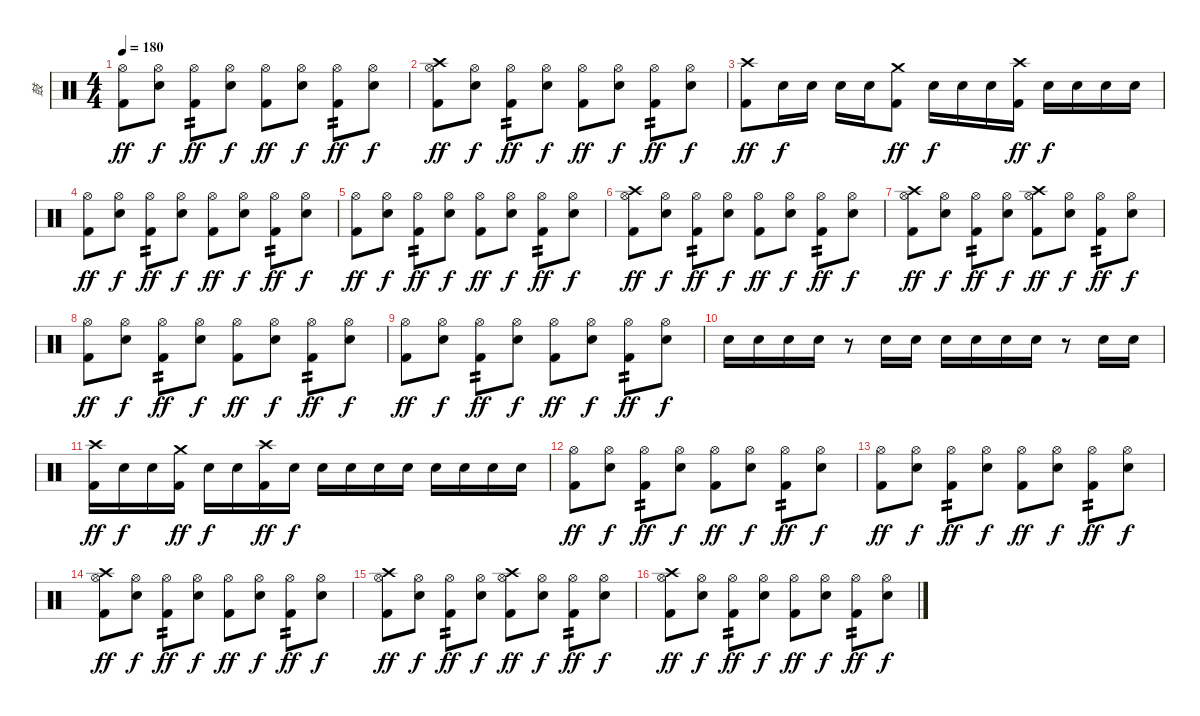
\track ("鼓" "鼓") {instrument percussion}
\staff {score}
\articulation defaults
\ts (4 4)
\tempo 180
\clef neutral
\ks c
("Hi-Hat (open)" "Kick (hit) 2").8{dy ff} ("Hi-Hat (open)" "Snare (hit) 2").8{dy f} ("Hi-Hat (open)" "Kick (hit) 2").8{tp 2 dy ff} ("Hi-Hat (open)" "Snare (hit) 2").8{dy f} ("Hi-Hat (open)" "Kick (hit) 2").8{dy ff} ("Hi-Hat (open)" "Snare (hit) 2").8{dy f} ("Hi-Hat (open)" "Kick (hit) 2").8{tp 2 dy ff} ("Hi-Hat (open)" "Snare (hit) 2").8{dy f} |
("Crash high (hit)" "Hi-Hat (open)" "Kick (hit) 2").8{dy ff} ("Hi-Hat (open)" "Snare (hit) 2").8{dy f} ("Hi-Hat (open)" "Kick (hit) 2").8{tp 2 dy ff} ("Hi-Hat (open)" "Snare (hit) 2").8{dy f} ("Hi-Hat (open)" "Kick (hit) 2").8{dy ff} ("Hi-Hat (open)" "Snare (hit) 2").8{dy f} ("Hi-Hat (open)" "Kick (hit) 2").8{tp 2 dy ff} ("Hi-Hat (open)" "Snare (hit) 2").8{dy f} |
("Crash high (hit)" "Kick (hit) 2").8{dy ff} "Snare (hit) 2".16{dy f} "Snare (hit) 2".16 "Snare (hit) 2".16 "Snare (hit) 2".16 ("Crash medium (hit)" "Kick (hit) 2").8{dy ff} "Snare (hit) 2".16{dy f} "Snare (hit) 2".16 "Snare (hit) 2".16 ("Crash high (hit)" "Kick (hit) 2").16{dy ff} "Snare (hit) 2".16{dy f} "Snare (hit) 2".16 "Snare (hit) 2".16 "Snare (hit) 2".16 |
("Hi-Hat (open)" "Kick (hit) 2").8{dy ff} ("Hi-Hat (open)" "Snare (hit) 2").8{dy f} ("Hi-Hat (open)" "Kick (hit) 2").8{tp 2 dy ff} ("Hi-Hat (open)" "Snare (hit) 2").8{dy f} ("Hi-Hat (open)" "Kick (hit) 2").8{dy ff} ("Hi-Hat (open)" "Snare (hit) 2").8{dy f} ("Hi-Hat (open)" "Kick (hit) 2").8{tp 2 dy ff} ("Hi-Hat (open)" "Snare (hit) 2").8{dy f} |
("Hi-Hat (open)" "Kick (hit) 2").8{dy ff} ("Hi-Hat (open)" "Snare (hit) 2").8{dy f} ("Hi-Hat (open)" "Kick (hit) 2").8{tp 2 dy ff} ("Hi-Hat (open)" "Snare (hit) 2").8{dy f} ("Hi-Hat (open)" "Kick (hit) 2").8{dy ff} ("Hi-Hat (open)" "Snare (hit) 2").8{dy f} ("Hi-Hat (open)" "Kick (hit) 2").8{tp 2 dy ff} ("Hi-Hat (open)" "Snare (hit) 2").8{dy f} |
("Crash high (hit)" "Hi-Hat (open)" "Kick (hit) 2").8{dy ff} ("Hi-Hat (open)" "Snare (hit) 2").8{dy f} ("Hi-Hat (open)" "Kick (hit) 2").8{tp 2 dy ff} ("Hi-Hat (open)" "Snare (hit) 2").8{dy f} ("Hi-Hat (open)" "Kick (hit) 2").8{dy ff} ("Hi-Hat (open)" "Snare (hit) 2").8{dy f} ("Hi-Hat (open)" "Kick (hit) 2").8{tp 2 dy ff} ("Hi-Hat (open)" "Snare (hit) 2").8{dy f} |
("Crash high (hit)" "Hi-Hat (open)" "Kick (hit) 2").8{dy ff} ("Hi-Hat (open)" "Snare (hit) 2").8{dy f} ("Hi-Hat (open)" "Kick (hit) 2").8{tp 2 dy ff} ("Hi-Hat (open)" "Snare (hit) 2").8{dy f} ("Crash high (hit)" "Hi-Hat (open)" "Kick (hit) 2").8{dy ff} ("Hi-Hat (open)" "Snare (hit) 2").8{dy f} ("Hi-Hat (open)" "Kick (hit) 2").8{tp 2 dy ff} ("Hi-Hat (open)" "Snare (hit) 2").8{dy f} |
("Hi-Hat (open)" "Kick (hit) 2").8{dy ff} ("Hi-Hat (open)" "Snare (hit) 2").8{dy f} ("Hi-Hat (open)" "Kick (hit) 2").8{tp 2 dy ff} ("Hi-Hat (open)" "Snare (hit) 2").8{dy f} ("Hi-Hat (open)" "Kick (hit) 2").8{dy ff} ("Hi-Hat (open)" "Snare (hit) 2").8{dy f} ("Hi-Hat (open)" "Kick (hit) 2").8{tp 2 dy ff} ("Hi-Hat (open)" "Snare (hit) 2").8{dy f} |
("Hi-Hat (open)" "Kick (hit) 2").8{dy ff} ("Hi-Hat (open)" "Snare (hit) 2").8{dy f} ("Hi-Hat (open)" "Kick (hit) 2").8{tp 2 dy ff} ("Hi-Hat (open)" "Snare (hit) 2").8{dy f} ("Hi-Hat (open)" "Kick (hit) 2").8{dy ff} ("Hi-Hat (open)" "Snare (hit) 2").8{dy f} ("Hi-Hat (open)" "Kick (hit) 2").8{tp 2 dy ff} ("Hi-Hat (open)" "Snare (hit) 2").8{dy f} |
"Snare (hit) 2".16 "Snare (hit) 2".16 "Snare (hit) 2".16 "Snare (hit) 2".16 r.8 "Snare (hit) 2".16 "Snare (hit) 2".16 "Snare (hit) 2".16 "Snare (hit) 2".16 "Snare (hit) 2".16 "Snare (hit) 2".16 r.8 "Snare (hit) 2".16 "Snare (hit) 2".16 |
("Crash high (hit)" "Kick (hit) 2").16{dy ff} "Snare (hit) 2".16{dy f} "Snare (hit) 2".16 ("Crash medium (hit)" "Kick (hit) 2").16{dy ff} "Snare (hit) 2".16{dy f} "Snare (hit) 2".16 ("Crash high (hit)" "Kick (hit) 2").16{dy ff} "Snare (hit) 2".16{dy f} "Snare (hit) 2".16 "Snare (hit) 2".16 "Snare (hit) 2".16 "Snare (hit) 2".16 "Snare (hit) 2".16 "Snare (hit) 2".16 "Snare (hit) 2".16 "Snare (hit) 2".16 |
("Hi-Hat (open)" "Kick (hit) 2").8{dy ff} ("Hi-Hat (open)" "Snare (hit) 2").8{dy f} ("Hi-Hat (open)" "Kick (hit) 2").8{tp 2 dy ff} ("Hi-Hat (open)" "Snare (hit) 2").8{dy f} ("Hi-Hat (open)" "Kick (hit) 2").8{dy ff} ("Hi-Hat (open)" "Snare (hit) 2").8{dy f} ("Hi-Hat (open)" "Kick (hit) 2").8{tp 2 dy ff} ("Hi-Hat (open)" "Snare (hit) 2").8{dy f} |
("Hi-Hat (open)" "Kick (hit) 2").8{dy ff} ("Hi-Hat (open)" "Snare (hit) 2").8{dy f} ("Hi-Hat (open)" "Kick (hit) 2").8{tp 2 dy ff} ("Hi-Hat (open)" "Snare (hit) 2").8{dy f} ("Hi-Hat (open)" "Kick (hit) 2").8{dy ff} ("Hi-Hat (open)" "Snare (hit) 2").8{dy f} ("Hi-Hat (open)" "Kick (hit) 2").8{tp 2 dy ff} ("Hi-Hat (open)" "Snare (hit) 2").8{dy f} |
("Crash high (hit)" "Hi-Hat (open)" "Kick (hit) 2").8{dy ff} ("Hi-Hat (open)" "Snare (hit) 2").8{dy f} ("Hi-Hat (open)" "Kick (hit) 2").8{tp 2 dy ff} ("Hi-Hat (open)" "Snare (hit) 2").8{dy f} ("Hi-Hat (open)" "Kick (hit) 2").8{dy ff} ("Hi-Hat (open)" "Snare (hit) 2").8{dy f} ("Hi-Hat (open)" "Kick (hit) 2").8{tp 2 dy ff} ("Hi-Hat (open)" "Snare (hit) 2").8{dy f} |
("Crash high (hit)" "Hi-Hat (open)" "Kick (hit) 2").8{dy ff} ("Hi-Hat (open)" "Snare (hit) 2").8{dy f} ("Hi-Hat (open)" "Kick (hit) 2").8{tp 2 dy ff} ("Hi-Hat (open)" "Snare (hit) 2").8{dy f} ("Crash high (hit)" "Hi-Hat (open)" "Kick (hit) 2").8{dy ff} ("Hi-Hat (open)" "Snare (hit) 2").8{dy f} ("Hi-Hat (open)" "Kick (hit) 2").8{tp 2 dy ff} ("Hi-Hat (open)" "Snare (hit) 2").8{dy f} |
("Crash high (hit)" "Hi-Hat (open)" "Kick (hit) 2").8{dy ff} ("Hi-Hat (open)" "Snare (hit) 2").8{dy f} ("Hi-Hat (open)" "Kick (hit) 2").8{tp 2 dy ff} ("Hi-Hat (open)" "Snare (hit) 2").8{dy f} ("Hi-Hat (open)" "Kick (hit) 2").8{dy ff} ("Hi-Hat (open)" "Snare (hit) 2").8{dy f} ("Hi-Hat (open)" "Kick (hit) 2").8{tp 2 dy ff} ("Hi-Hat (open)" "Snare (hit) 2").8{dy f}
